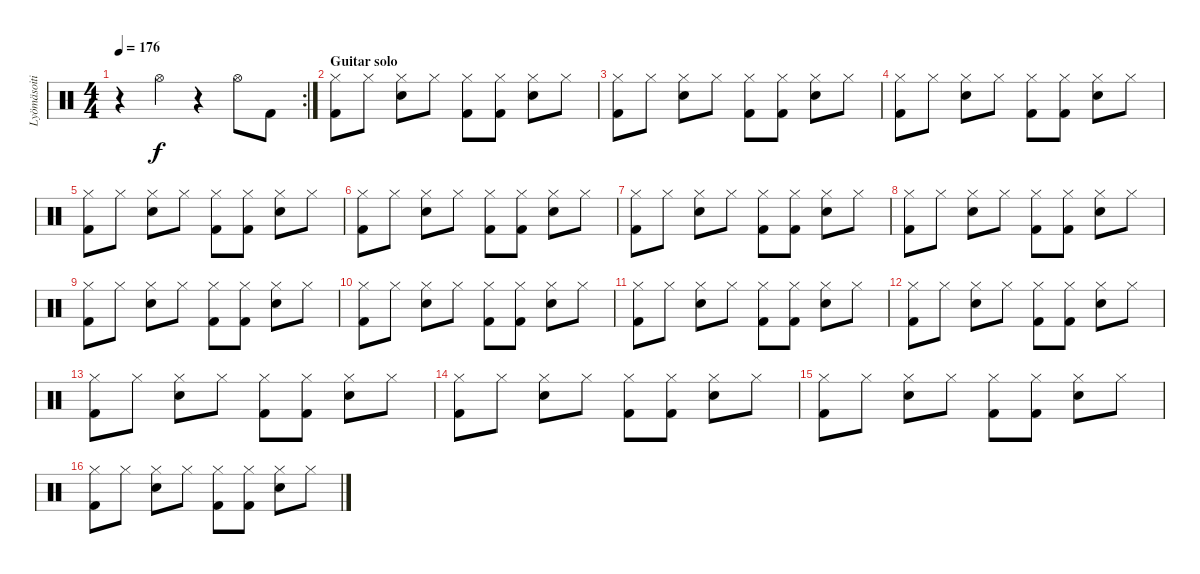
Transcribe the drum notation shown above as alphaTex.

\track ("Lyömäsoitin" "Lyömäsoiti") {instrument percussion}
\staff {score}
\articulation defaults
\rc 2
\ts (4 4)
\tempo 176
\clef neutral
\ks c
r.4{dy f} "Hi-Hat (open)".4 r.4 "Hi-Hat (open)".8 "Kick (hit) 2".8 |
\section ("" "Guitar solo")
("Hi-Hat (closed)" "Kick (hit) 2").8 "Hi-Hat (closed)".8 ("Hi-Hat (closed)" "Electric Snare (hit)").8 "Hi-Hat (closed)".8 ("Hi-Hat (closed)" "Kick (hit) 2").8 ("Hi-Hat (closed)" "Kick (hit) 2").8 ("Hi-Hat (closed)" "Electric Snare (hit)").8 "Hi-Hat (closed)".8 |
("Hi-Hat (closed)" "Kick (hit) 2").8 "Hi-Hat (closed)".8 ("Hi-Hat (closed)" "Electric Snare (hit)").8 "Hi-Hat (closed)".8 ("Hi-Hat (closed)" "Kick (hit) 2").8 ("Hi-Hat (closed)" "Kick (hit) 2").8 ("Hi-Hat (closed)" "Electric Snare (hit)").8 "Hi-Hat (closed)".8 |
("Hi-Hat (closed)" "Kick (hit) 2").8 "Hi-Hat (closed)".8 ("Hi-Hat (closed)" "Electric Snare (hit)").8 "Hi-Hat (closed)".8 ("Hi-Hat (closed)" "Kick (hit) 2").8 ("Hi-Hat (closed)" "Kick (hit) 2").8 ("Hi-Hat (closed)" "Electric Snare (hit)").8 "Hi-Hat (closed)".8 |
("Hi-Hat (closed)" "Kick (hit) 2").8 "Hi-Hat (closed)".8 ("Hi-Hat (closed)" "Electric Snare (hit)").8 "Hi-Hat (closed)".8 ("Hi-Hat (closed)" "Kick (hit) 2").8 ("Hi-Hat (closed)" "Kick (hit) 2").8 ("Hi-Hat (closed)" "Electric Snare (hit)").8 "Hi-Hat (closed)".8 |
("Hi-Hat (closed)" "Kick (hit) 2").8 "Hi-Hat (closed)".8 ("Hi-Hat (closed)" "Electric Snare (hit)").8 "Hi-Hat (closed)".8 ("Hi-Hat (closed)" "Kick (hit) 2").8 ("Hi-Hat (closed)" "Kick (hit) 2").8 ("Hi-Hat (closed)" "Electric Snare (hit)").8 "Hi-Hat (closed)".8 |
("Hi-Hat (closed)" "Kick (hit) 2").8 "Hi-Hat (closed)".8 ("Hi-Hat (closed)" "Electric Snare (hit)").8 "Hi-Hat (closed)".8 ("Hi-Hat (closed)" "Kick (hit) 2").8 ("Hi-Hat (closed)" "Kick (hit) 2").8 ("Hi-Hat (closed)" "Electric Snare (hit)").8 "Hi-Hat (closed)".8 |
("Hi-Hat (closed)" "Kick (hit) 2").8 "Hi-Hat (closed)".8 ("Hi-Hat (closed)" "Electric Snare (hit)").8 "Hi-Hat (closed)".8 ("Hi-Hat (closed)" "Kick (hit) 2").8 ("Hi-Hat (closed)" "Kick (hit) 2").8 ("Hi-Hat (closed)" "Electric Snare (hit)").8 "Hi-Hat (closed)".8 |
("Hi-Hat (closed)" "Kick (hit) 2").8 "Hi-Hat (closed)".8 ("Hi-Hat (closed)" "Electric Snare (hit)").8 "Hi-Hat (closed)".8 ("Hi-Hat (closed)" "Kick (hit) 2").8 ("Hi-Hat (closed)" "Kick (hit) 2").8 ("Hi-Hat (closed)" "Electric Snare (hit)").8 "Hi-Hat (closed)".8 |
("Hi-Hat (closed)" "Kick (hit) 2").8 "Hi-Hat (closed)".8 ("Hi-Hat (closed)" "Electric Snare (hit)").8 "Hi-Hat (closed)".8 ("Hi-Hat (closed)" "Kick (hit) 2").8 ("Hi-Hat (closed)" "Kick (hit) 2").8 ("Hi-Hat (closed)" "Electric Snare (hit)").8 "Hi-Hat (closed)".8 |
("Hi-Hat (closed)" "Kick (hit) 2").8 "Hi-Hat (closed)".8 ("Hi-Hat (closed)" "Electric Snare (hit)").8 "Hi-Hat (closed)".8 ("Hi-Hat (closed)" "Kick (hit) 2").8 ("Hi-Hat (closed)" "Kick (hit) 2").8 ("Hi-Hat (closed)" "Electric Snare (hit)").8 "Hi-Hat (closed)".8 |
("Hi-Hat (closed)" "Kick (hit) 2").8 "Hi-Hat (closed)".8 ("Hi-Hat (closed)" "Electric Snare (hit)").8 "Hi-Hat (closed)".8 ("Hi-Hat (closed)" "Kick (hit) 2").8 ("Hi-Hat (closed)" "Kick (hit) 2").8 ("Hi-Hat (closed)" "Electric Snare (hit)").8 "Hi-Hat (closed)".8 |
("Hi-Hat (closed)" "Kick (hit) 2").8 "Hi-Hat (closed)".8 ("Hi-Hat (closed)" "Electric Snare (hit)").8 "Hi-Hat (closed)".8 ("Hi-Hat (closed)" "Kick (hit) 2").8 ("Hi-Hat (closed)" "Kick (hit) 2").8 ("Hi-Hat (closed)" "Electric Snare (hit)").8 "Hi-Hat (closed)".8 |
("Hi-Hat (closed)" "Kick (hit) 2").8 "Hi-Hat (closed)".8 ("Hi-Hat (closed)" "Electric Snare (hit)").8 "Hi-Hat (closed)".8 ("Hi-Hat (closed)" "Kick (hit) 2").8 ("Hi-Hat (closed)" "Kick (hit) 2").8 ("Hi-Hat (closed)" "Electric Snare (hit)").8 "Hi-Hat (closed)".8 |
("Hi-Hat (closed)" "Kick (hit) 2").8 "Hi-Hat (closed)".8 ("Hi-Hat (closed)" "Electric Snare (hit)").8 "Hi-Hat (closed)".8 ("Hi-Hat (closed)" "Kick (hit) 2").8 ("Hi-Hat (closed)" "Kick (hit) 2").8 ("Hi-Hat (closed)" "Electric Snare (hit)").8 "Hi-Hat (closed)".8 |
("Hi-Hat (closed)" "Kick (hit) 2").8 "Hi-Hat (closed)".8 ("Hi-Hat (closed)" "Electric Snare (hit)").8 "Hi-Hat (closed)".8 ("Hi-Hat (closed)" "Kick (hit) 2").8 ("Hi-Hat (closed)" "Kick (hit) 2").8 ("Hi-Hat (closed)" "Electric Snare (hit)").8 "Hi-Hat (closed)".8
